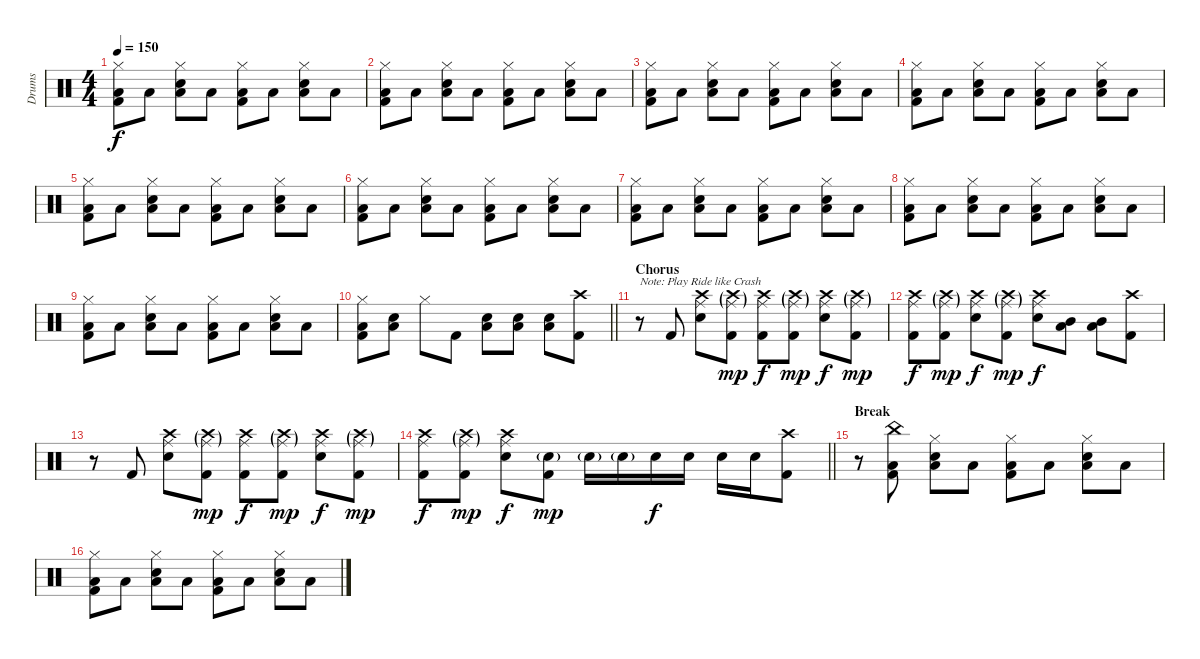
\track ("Drums" "Drums") {instrument percussion}
\staff {score}
\articulation defaults
\ts (4 4)
\tempo 150
\clef neutral
\ks c
("Hi-Hat (closed)" "Low Tom (hit)" "Kick (hit) 2").8{dy f} "Low Tom (hit)".8 ("Hi-Hat (closed)" "Low Tom (hit)" "Electric Snare (hit)").8 "Low Tom (hit)".8 ("Hi-Hat (closed)" "Low Tom (hit)" "Kick (hit) 2").8 "Low Tom (hit)".8 ("Hi-Hat (closed)" "Low Tom (hit)" "Electric Snare (hit)").8 "Low Tom (hit)".8 |
("Hi-Hat (closed)" "Low Tom (hit)" "Kick (hit) 2").8 "Low Tom (hit)".8 ("Hi-Hat (closed)" "Low Tom (hit)" "Electric Snare (hit)").8 "Low Tom (hit)".8 ("Hi-Hat (closed)" "Low Tom (hit)" "Kick (hit) 2").8 "Low Tom (hit)".8 ("Hi-Hat (closed)" "Low Tom (hit)" "Electric Snare (hit)").8 "Low Tom (hit)".8 |
("Hi-Hat (closed)" "Low Tom (hit)" "Kick (hit) 2").8 "Low Tom (hit)".8 ("Hi-Hat (closed)" "Low Tom (hit)" "Electric Snare (hit)").8 "Low Tom (hit)".8 ("Hi-Hat (closed)" "Low Tom (hit)" "Kick (hit) 2").8 "Low Tom (hit)".8 ("Hi-Hat (closed)" "Low Tom (hit)" "Electric Snare (hit)").8 "Low Tom (hit)".8 |
("Hi-Hat (closed)" "Low Tom (hit)" "Kick (hit) 2").8 "Low Tom (hit)".8 ("Hi-Hat (closed)" "Low Tom (hit)" "Electric Snare (hit)").8 "Low Tom (hit)".8 ("Hi-Hat (closed)" "Low Tom (hit)" "Kick (hit) 2").8 "Low Tom (hit)".8 ("Hi-Hat (closed)" "Low Tom (hit)" "Electric Snare (hit)").8 "Low Tom (hit)".8 |
("Hi-Hat (closed)" "Low Tom (hit)" "Kick (hit) 2").8 "Low Tom (hit)".8 ("Hi-Hat (closed)" "Low Tom (hit)" "Electric Snare (hit)").8 "Low Tom (hit)".8 ("Hi-Hat (closed)" "Low Tom (hit)" "Kick (hit) 2").8 "Low Tom (hit)".8 ("Hi-Hat (closed)" "Low Tom (hit)" "Electric Snare (hit)").8 "Low Tom (hit)".8 |
("Hi-Hat (closed)" "Low Tom (hit)" "Kick (hit) 2").8 "Low Tom (hit)".8 ("Hi-Hat (closed)" "Low Tom (hit)" "Electric Snare (hit)").8 "Low Tom (hit)".8 ("Hi-Hat (closed)" "Low Tom (hit)" "Kick (hit) 2").8 "Low Tom (hit)".8 ("Hi-Hat (closed)" "Low Tom (hit)" "Electric Snare (hit)").8 "Low Tom (hit)".8 |
("Hi-Hat (closed)" "Low Tom (hit)" "Kick (hit) 2").8 "Low Tom (hit)".8 ("Hi-Hat (closed)" "Low Tom (hit)" "Electric Snare (hit)").8 "Low Tom (hit)".8 ("Hi-Hat (closed)" "Low Tom (hit)" "Kick (hit) 2").8 "Low Tom (hit)".8 ("Hi-Hat (closed)" "Low Tom (hit)" "Electric Snare (hit)").8 "Low Tom (hit)".8 |
("Hi-Hat (closed)" "Low Tom (hit)" "Kick (hit) 2").8 "Low Tom (hit)".8 ("Hi-Hat (closed)" "Low Tom (hit)" "Electric Snare (hit)").8 "Low Tom (hit)".8 ("Hi-Hat (closed)" "Low Tom (hit)" "Kick (hit) 2").8 "Low Tom (hit)".8 ("Hi-Hat (closed)" "Low Tom (hit)" "Electric Snare (hit)").8 "Low Tom (hit)".8 |
("Hi-Hat (closed)" "Low Tom (hit)" "Kick (hit) 2").8 "Low Tom (hit)".8 ("Hi-Hat (closed)" "Low Tom (hit)" "Electric Snare (hit)").8 "Low Tom (hit)".8 ("Hi-Hat (closed)" "Low Tom (hit)" "Kick (hit) 2").8 "Low Tom (hit)".8 ("Hi-Hat (closed)" "Low Tom (hit)" "Electric Snare (hit)").8 "Low Tom (hit)".8 |
\barLineRight lightlight
("Hi-Hat (closed)" "Low Tom (hit)" "Kick (hit) 2").8 ("Low Tom (hit)" "Electric Snare (hit)").8 "Hi-Hat (closed)".8 "Kick (hit) 2".8 ("Low Tom (hit)" "Electric Snare (hit)").8 ("Low Tom (hit)" "Electric Snare (hit)").8 ("Low Tom (hit)" "Electric Snare (hit)").8 ("Crash high (hit)" "Kick (hit) 2").8 |
\section ("" "Chorus")
r.8{txt "Note: Play Ride like Crash"} "Kick (hit) 2".8 ("Ride (middle)" "Crash high (hit)" "Electric Snare (hit)").8 ("Ride (middle)"{g} "Crash high (hit)"{g} "Kick (hit) 2").8{dy mp} ("Ride (middle)" "Crash high (hit)" "Kick (hit) 2").8{dy f} ("Ride (middle)"{g} "Crash high (hit)"{g} "Kick (hit) 2").8{dy mp} ("Ride (middle)" "Crash high (hit)" "Electric Snare (hit)").8{dy f} ("Ride (middle)"{g} "Crash high (hit)"{g} "Kick (hit) 2").8{dy mp} |
("Ride (middle)" "Crash high (hit)" "Kick (hit) 2").8{dy f} ("Ride (middle)"{g} "Crash high (hit)"{g} "Kick (hit) 2").8{dy mp} ("Ride (middle)" "Crash high (hit)" "Electric Snare (hit)").8{dy f} ("Ride (middle)"{g} "Crash high (hit)"{g} "Kick (hit) 2").8{dy mp} ("Ride (middle)" "Crash high (hit)" "Electric Snare (hit)").8{dy f} ("Low Tom (hit)" "Mid Tom (hit)").8 ("Low Tom (hit)" "Mid Tom (hit)").8 ("Crash high (hit)" "Kick (hit) 2").8 |
r.8 "Kick (hit) 2".8 ("Ride (middle)" "Crash high (hit)" "Electric Snare (hit)").8 ("Ride (middle)"{g} "Crash high (hit)"{g} "Kick (hit) 2").8{dy mp} ("Ride (middle)" "Crash high (hit)" "Kick (hit) 2").8{dy f} ("Ride (middle)"{g} "Crash high (hit)"{g} "Kick (hit) 2").8{dy mp} ("Ride (middle)" "Crash high (hit)" "Electric Snare (hit)").8{dy f} ("Ride (middle)"{g} "Crash high (hit)"{g} "Kick (hit) 2").8{dy mp} |
\barLineRight lightlight
("Ride (middle)" "Crash high (hit)" "Kick (hit) 2").8{dy f} ("Ride (middle)"{g} "Crash high (hit)"{g} "Kick (hit) 2").8{dy mp} ("Ride (middle)" "Crash high (hit)" "Electric Snare (hit)").8{dy f} ("Electric Snare (hit)"{g} "Kick (hit) 2").8{dy mp} "Electric Snare (hit)"{g}.16 "Electric Snare (hit)"{g}.16 "Electric Snare (hit)".16{dy f} "Electric Snare (hit)".16 "Electric Snare (hit)".16 "Electric Snare (hit)".16 ("Crash high (hit)" "Kick (hit) 2").8 |
\section ("" "Break")
r.8 ("China (hit)" "Low Tom (hit)" "Kick (hit) 2").8 ("Hi-Hat (closed)" "Low Tom (hit)" "Electric Snare (hit)").8 "Low Tom (hit)".8 ("Hi-Hat (closed)" "Low Tom (hit)" "Kick (hit) 2").8 "Low Tom (hit)".8 ("Hi-Hat (closed)" "Low Tom (hit)" "Electric Snare (hit)").8 "Low Tom (hit)".8 |
("Hi-Hat (closed)" "Low Tom (hit)" "Kick (hit) 2").8 "Low Tom (hit)".8 ("Hi-Hat (closed)" "Low Tom (hit)" "Electric Snare (hit)").8 "Low Tom (hit)".8 ("Hi-Hat (closed)" "Low Tom (hit)" "Kick (hit) 2").8 "Low Tom (hit)".8 ("Hi-Hat (closed)" "Low Tom (hit)" "Electric Snare (hit)").8 "Low Tom (hit)".8
